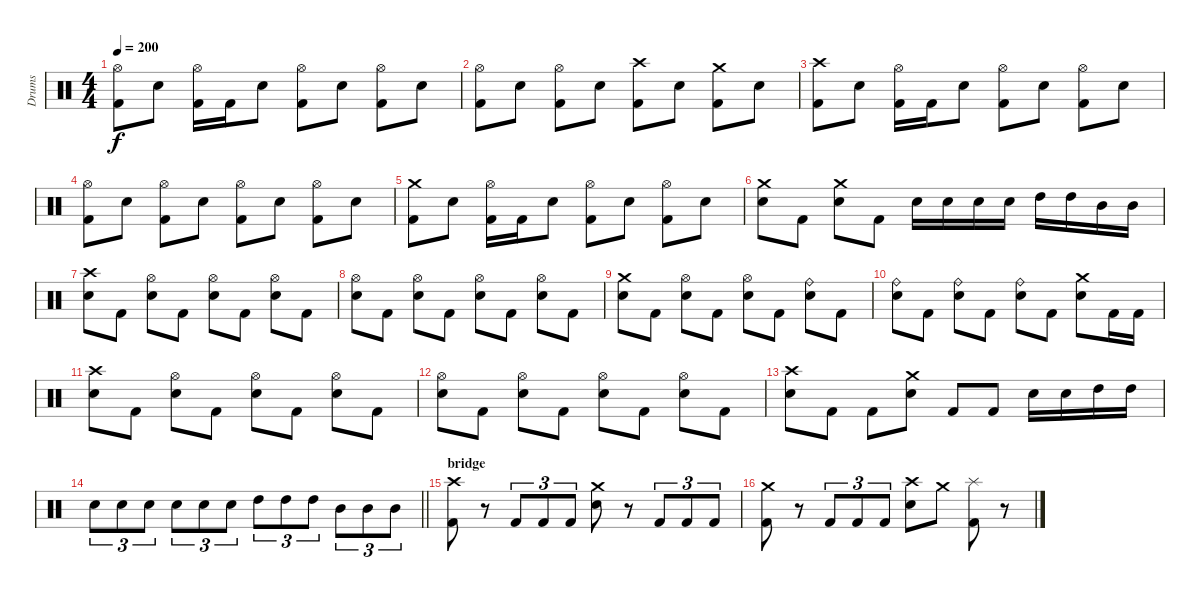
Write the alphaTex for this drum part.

\track ("Drums" "Drums") {instrument percussion}
\staff {score}
\articulation defaults
\ts (4 4)
\tempo 200
\clef neutral
\ks c
("Hi-Hat (open)" "Kick (hit) 2").8{dy f} "Electric Snare (hit)".8 ("Hi-Hat (open)" "Kick (hit) 2").16 "Kick (hit) 2".16 "Electric Snare (hit)".8 ("Hi-Hat (open)" "Kick (hit) 2").8 "Electric Snare (hit)".8 ("Hi-Hat (open)" "Kick (hit) 2").8 "Electric Snare (hit)".8 |
("Hi-Hat (open)" "Kick (hit) 2").8 "Electric Snare (hit)".8 ("Hi-Hat (open)" "Kick (hit) 2").8 "Electric Snare (hit)".8 ("Crash high (hit)" "Kick (hit) 2").8 "Electric Snare (hit)".8 ("Crash medium (hit)" "Kick (hit) 2").8 "Electric Snare (hit)".8 |
("Crash high (hit)" "Kick (hit) 2").8 "Electric Snare (hit)".8 ("Hi-Hat (open)" "Kick (hit) 2").16 "Kick (hit) 2".16 "Electric Snare (hit)".8 ("Hi-Hat (open)" "Kick (hit) 2").8 "Electric Snare (hit)".8 ("Hi-Hat (open)" "Kick (hit) 2").8 "Electric Snare (hit)".8 |
("Hi-Hat (open)" "Kick (hit) 2").8 "Electric Snare (hit)".8 ("Hi-Hat (open)" "Kick (hit) 2").8 "Electric Snare (hit)".8 ("Hi-Hat (open)" "Kick (hit) 2").8 "Electric Snare (hit)".8 ("Hi-Hat (open)" "Kick (hit) 2").8 "Electric Snare (hit)".8 |
("Crash medium (hit)" "Kick (hit) 2").8 "Electric Snare (hit)".8 ("Hi-Hat (open)" "Kick (hit) 2").16 "Kick (hit) 2".16 "Electric Snare (hit)".8 ("Hi-Hat (open)" "Kick (hit) 2").8 "Electric Snare (hit)".8 ("Hi-Hat (open)" "Kick (hit) 2").8 "Electric Snare (hit)".8 |
("Crash medium (hit)" "Electric Snare (hit)").8 "Kick (hit) 2".8 ("Crash medium (hit)" "Electric Snare (hit)").8 "Kick (hit) 2".8 "Electric Snare (hit)".16 "Electric Snare (hit)".16 "Electric Snare (hit)".16 "Electric Snare (hit)".16 "High Tom (hit)".16 "High Tom (hit)".16 "Mid Tom (hit)".16 "Mid Tom (hit)".16 |
("Crash high (hit)" "Electric Snare (hit)").8 "Kick (hit) 2".8 ("Hi-Hat (open)" "Electric Snare (hit)").8 "Kick (hit) 2".8 ("Hi-Hat (open)" "Electric Snare (hit)").8 "Kick (hit) 2".8 ("Hi-Hat (open)" "Electric Snare (hit)").8 "Kick (hit) 2".8 |
("Hi-Hat (open)" "Electric Snare (hit)").8 "Kick (hit) 2".8 ("Hi-Hat (open)" "Electric Snare (hit)").8 "Kick (hit) 2".8 ("Hi-Hat (open)" "Electric Snare (hit)").8 "Kick (hit) 2".8 ("Hi-Hat (open)" "Electric Snare (hit)").8 "Kick (hit) 2".8 |
("Crash medium (hit)" "Electric Snare (hit)").8 "Kick (hit) 2".8 ("Hi-Hat (open)" "Electric Snare (hit)").8 "Kick (hit) 2".8 ("Hi-Hat (open)" "Electric Snare (hit)").8 "Kick (hit) 2".8 ("Ride (bell)" "Electric Snare (hit)").8 "Kick (hit) 2".8 |
("Ride (bell)" "Electric Snare (hit)").8 "Kick (hit) 2".8 ("Ride (bell)" "Electric Snare (hit)").8 "Kick (hit) 2".8 ("Ride (bell)" "Electric Snare (hit)").8 "Kick (hit) 2".8 ("Crash medium (hit)" "Electric Snare (hit)").8 "Kick (hit) 2".16 "Kick (hit) 2".16 |
("Crash high (hit)" "Electric Snare (hit)").8 "Kick (hit) 2".8 ("Hi-Hat (open)" "Electric Snare (hit)").8 "Kick (hit) 2".8 ("Hi-Hat (open)" "Electric Snare (hit)").8 "Kick (hit) 2".8 ("Hi-Hat (open)" "Electric Snare (hit)").8 "Kick (hit) 2".8 |
("Hi-Hat (open)" "Electric Snare (hit)").8 "Kick (hit) 2".8 ("Hi-Hat (open)" "Electric Snare (hit)").8 "Kick (hit) 2".8 ("Hi-Hat (open)" "Electric Snare (hit)").8 "Kick (hit) 2".8 ("Hi-Hat (open)" "Electric Snare (hit)").8 "Kick (hit) 2".8 |
("Crash high (hit)" "Electric Snare (hit)").8 "Kick (hit) 2".8 "Kick (hit) 2".8 ("Crash medium (hit)" "Electric Snare (hit)").8 "Kick (hit) 2".8 "Kick (hit) 2".8 "Electric Snare (hit)".16 "Electric Snare (hit)".16 "High Tom (hit)".16 "High Tom (hit)".16 |
\barLineRight lightlight "Electric Snare (hit)".8{tu (3 2)} "Electric Snare (hit)".8{tu (3 2)} "Electric Snare (hit)".8{tu (3 2)} "Electric Snare (hit)".8{tu (3 2)} "Electric Snare (hit)".8{tu (3 2)} "Electric Snare (hit)".8{tu (3 2)} "High Tom (hit)".8{tu (3 2)} "High Tom (hit)".8{tu (3 2)} "High Tom (hit)".8{tu (3 2)} "Mid Tom (hit)".8{tu (3 2)} "Mid Tom (hit)".8{tu (3 2)} "Mid Tom (hit)".8{tu (3 2)}
|
\section ("" "bridge")
("Crash high (hit)" "Kick (hit) 2").8 r.8 "Kick (hit) 2".8{tu (3 2)} "Kick (hit) 2".8{tu (3 2)} "Kick (hit) 2".8{tu (3 2)} ("Crash medium (hit)" "Electric Snare (hit)").8 r.8 "Kick (hit) 2".8{tu (3 2)} "Kick (hit) 2".8{tu (3 2)} "Kick (hit) 2".8{tu (3 2)} |
("Crash medium (hit)" "Kick (hit) 2").8 r.8 "Kick (hit) 2".8{tu (3 2)} "Kick (hit) 2".8{tu (3 2)} "Kick (hit) 2".8{tu (3 2)} ("Crash high (hit)" "Electric Snare (hit)").8 "Crash medium (hit)".8 ("Splash (hit)" "Kick (hit) 2").8 r.8
